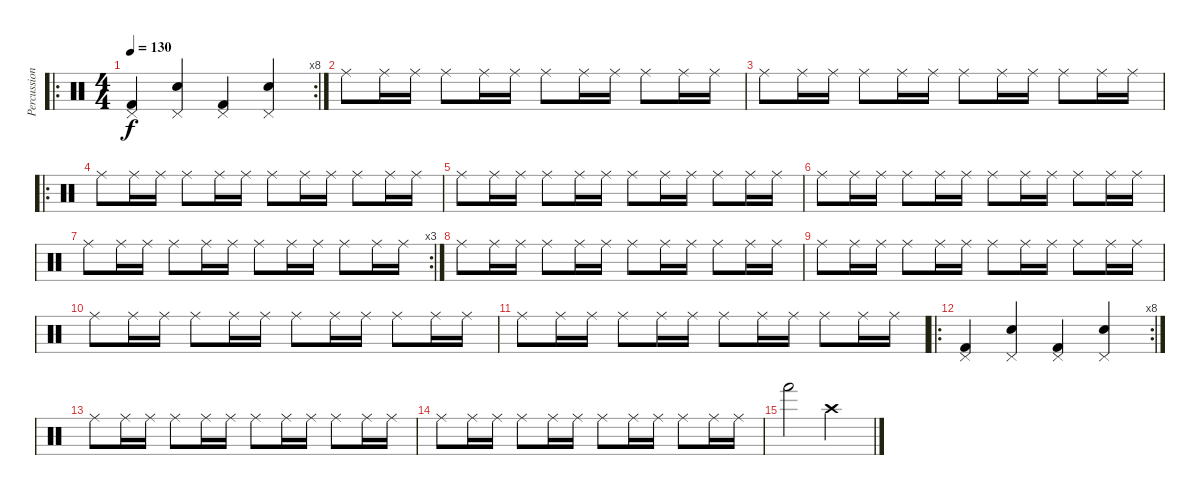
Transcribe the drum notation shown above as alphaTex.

\track ("Percussion" "Percussion") {instrument percussion}
\staff {score}
\articulation defaults
\ro
\rc 8
\ts (4 4)
\tempo 130
\clef neutral
\ks c
("Pedal Hi-Hat (hit)" "Kick (hit) 2").4{dy f} ("Pedal Hi-Hat (hit)" "Snare (hit) 2").4 ("Pedal Hi-Hat (hit)" "Kick (hit) 2").4 ("Pedal Hi-Hat (hit)" "Snare (hit) 2").4 |
"Ride (middle)".8 "Ride (middle)".16 "Ride (middle)".16 "Ride (middle)".8 "Ride (middle)".16 "Ride (middle)".16 "Ride (middle)".8 "Ride (middle)".16 "Ride (middle)".16 "Ride (middle)".8 "Ride (middle)".16 "Ride (middle)".16 |
"Ride (middle)".8 "Ride (middle)".16 "Ride (middle)".16 "Ride (middle)".8 "Ride (middle)".16 "Ride (middle)".16 "Ride (middle)".8 "Ride (middle)".16 "Ride (middle)".16 "Ride (middle)".8 "Ride (middle)".16 "Ride (middle)".16 |
\ro "Ride (middle)".8 "Ride (middle)".16 "Ride (middle)".16 "Ride (middle)".8 "Ride (middle)".16 "Ride (middle)".16 "Ride (middle)".8 "Ride (middle)".16 "Ride (middle)".16 "Ride (middle)".8 "Ride (middle)".16 "Ride (middle)".16
|
"Ride (middle)".8 "Ride (middle)".16 "Ride (middle)".16 "Ride (middle)".8 "Ride (middle)".16 "Ride (middle)".16 "Ride (middle)".8 "Ride (middle)".16 "Ride (middle)".16 "Ride (middle)".8 "Ride (middle)".16 "Ride (middle)".16 |
"Ride (middle)".8 "Ride (middle)".16 "Ride (middle)".16 "Ride (middle)".8 "Ride (middle)".16 "Ride (middle)".16 "Ride (middle)".8 "Ride (middle)".16 "Ride (middle)".16 "Ride (middle)".8 "Ride (middle)".16 "Ride (middle)".16 |
\rc 3 "Ride (middle)".8 "Ride (middle)".16 "Ride (middle)".16 "Ride (middle)".8 "Ride (middle)".16 "Ride (middle)".16 "Ride (middle)".8 "Ride (middle)".16 "Ride (middle)".16 "Ride (middle)".8 "Ride (middle)".16 "Ride (middle)".16
|
"Ride (middle)".8 "Ride (middle)".16 "Ride (middle)".16 "Ride (middle)".8 "Ride (middle)".16 "Ride (middle)".16 "Ride (middle)".8 "Ride (middle)".16 "Ride (middle)".16 "Ride (middle)".8 "Ride (middle)".16 "Ride (middle)".16 |
"Ride (middle)".8 "Ride (middle)".16 "Ride (middle)".16 "Ride (middle)".8 "Ride (middle)".16 "Ride (middle)".16 "Ride (middle)".8 "Ride (middle)".16 "Ride (middle)".16 "Ride (middle)".8 "Ride (middle)".16 "Ride (middle)".16 |
"Ride (middle)".8 "Ride (middle)".16 "Ride (middle)".16 "Ride (middle)".8 "Ride (middle)".16 "Ride (middle)".16 "Ride (middle)".8 "Ride (middle)".16 "Ride (middle)".16 "Ride (middle)".8 "Ride (middle)".16 "Ride (middle)".16 |
"Ride (middle)".8 "Ride (middle)".16 "Ride (middle)".16 "Ride (middle)".8 "Ride (middle)".16 "Ride (middle)".16 "Ride (middle)".8 "Ride (middle)".16 "Ride (middle)".16 "Ride (middle)".8 "Ride (middle)".16 "Ride (middle)".16 |
\ro
\rc 8
("Pedal Hi-Hat (hit)" "Kick (hit) 2").4 ("Pedal Hi-Hat (hit)" "Snare (hit) 2").4 ("Pedal Hi-Hat (hit)" "Kick (hit) 2").4 ("Pedal Hi-Hat (hit)" "Snare (hit) 2").4 |
"Ride (middle)".8 "Ride (middle)".16 "Ride (middle)".16 "Ride (middle)".8 "Ride (middle)".16 "Ride (middle)".16 "Ride (middle)".8 "Ride (middle)".16 "Ride (middle)".16 "Ride (middle)".8 "Ride (middle)".16 "Ride (middle)".16 |
"Ride (middle)".8 "Ride (middle)".16 "Ride (middle)".16 "Ride (middle)".8 "Ride (middle)".16 "Ride (middle)".16 "Ride (middle)".8 "Ride (middle)".16 "Ride (middle)".16 "Ride (middle)".8 "Ride (middle)".16 "Ride (middle)".16 |
"Hand (hit)".2 "Crash high (hit)".2
